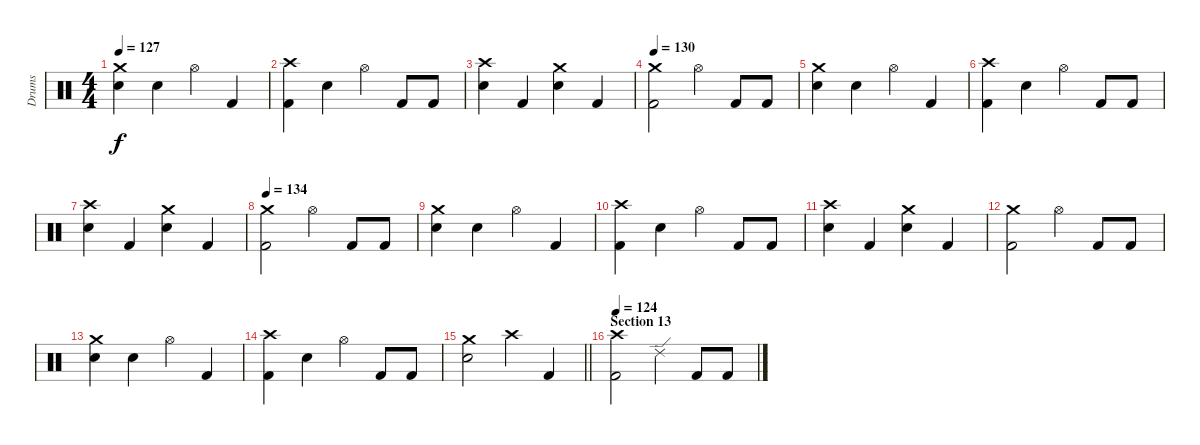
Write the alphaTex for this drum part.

\track ("Drums" "Drums") {instrument percussion}
\staff {score}
\articulation defaults
\ts (4 4)
\tempo 127
\clef neutral
\ks c
("Crash medium (hit)" "Electric Snare (hit)").4{dy f} "Electric Snare (hit)".4 "Hi-Hat (open)".4 "Kick (hit) 2".4 |
("Crash high (hit)" "Kick (hit) 2").4 "Electric Snare (hit)".4 "Hi-Hat (open)".4 "Kick (hit) 2".8 "Kick (hit) 2".8 |
("Crash high (hit)" "Electric Snare (hit)").4 "Kick (hit) 2".4 ("Crash medium (hit)" "Electric Snare (hit)").4 "Kick (hit) 2".4 |
\tempo 130
("Crash medium (hit)" "Kick (hit) 2").2 "Hi-Hat (open)".4 "Kick (hit) 2".8 "Kick (hit) 2".8 |
("Crash medium (hit)" "Electric Snare (hit)").4 "Electric Snare (hit)".4 "Hi-Hat (open)".4 "Kick (hit) 2".4 |
("Crash high (hit)" "Kick (hit) 2").4 "Electric Snare (hit)".4 "Hi-Hat (open)".4 "Kick (hit) 2".8 "Kick (hit) 2".8 |
("Crash high (hit)" "Electric Snare (hit)").4 "Kick (hit) 2".4 ("Crash medium (hit)" "Electric Snare (hit)").4 "Kick (hit) 2".4 |
\tempo 134
("Crash medium (hit)" "Kick (hit) 2").2 "Hi-Hat (open)".4 "Kick (hit) 2".8 "Kick (hit) 2".8 |
("Crash medium (hit)" "Electric Snare (hit)").4 "Electric Snare (hit)".4 "Hi-Hat (open)".4 "Kick (hit) 2".4 |
("Crash high (hit)" "Kick (hit) 2").4 "Electric Snare (hit)".4 "Hi-Hat (open)".4 "Kick (hit) 2".8 "Kick (hit) 2".8 |
("Crash high (hit)" "Electric Snare (hit)").4 "Kick (hit) 2".4 ("Crash medium (hit)" "Electric Snare (hit)").4 "Kick (hit) 2".4 |
("Crash medium (hit)" "Kick (hit) 2").2 "Hi-Hat (open)".4 "Kick (hit) 2".8 "Kick (hit) 2".8 |
("Crash medium (hit)" "Electric Snare (hit)").4 "Electric Snare (hit)".4 "Hi-Hat (open)".4 "Kick (hit) 2".4 |
("Crash high (hit)" "Kick (hit) 2").4 "Electric Snare (hit)".4 "Hi-Hat (open)".4 "Kick (hit) 2".8 "Kick (hit) 2".8 |
\barLineRight lightlight
("Crash medium (hit)" "Electric Snare (hit)").2 "Crash high (hit)".4 "Kick (hit) 2".4 |
\section ("" "Section 13")
\tempo 124
("Crash high (hit)" "Kick (hit) 2").2 "Ride (edge) 2".4 "Kick (hit) 2".8 "Kick (hit) 2".8
